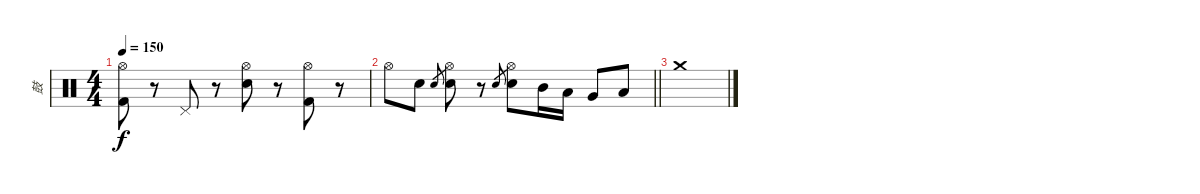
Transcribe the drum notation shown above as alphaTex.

\track ("鼓" "鼓") {instrument percussion}
\staff {score}
\articulation defaults
\ts (4 4)
\tempo 150
\clef neutral
\ks c
("Hi-Hat (open)" "Kick (hit) 2").8{dy f} r.8 "Pedal Hi-Hat (hit)".8 r.8 ("Hi-Hat (open)" "Electric Snare (hit)").8 r.8 ("Hi-Hat (open)" "Kick (hit) 2").8 r.8 |
\barLineRight lightlight "Hi-Hat (open)".8 "Electric Snare (hit)".8 "Electric Snare (hit)".8{gr}
("Hi-Hat (open)" "Electric Snare (hit)").8 r.8 "Electric Snare (hit)".8{gr} ("Hi-Hat (open)" "Electric Snare (hit)").8 "Mid Tom (hit)".16 "Low Tom (hit)".16 "Very Low Tom (hit)".8 "Low Floor Tom (hit)".8 |
"Crash medium (hit)".1
